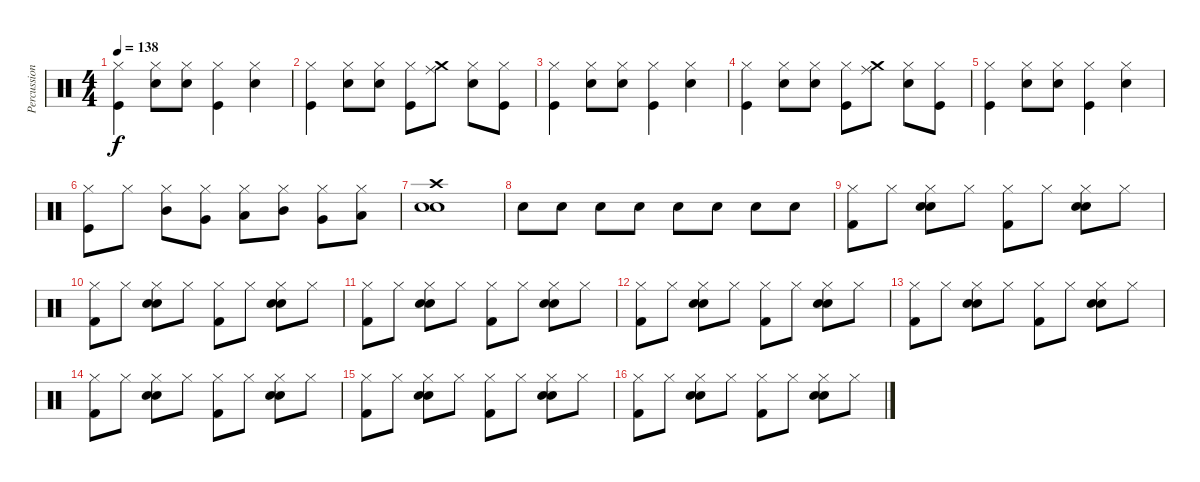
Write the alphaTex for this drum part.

\track ("Percussions" "Percussion") {instrument percussion}
\staff {score}
\articulation defaults
\ts (4 4)
\tempo 138
\clef neutral
\ks c
("Hi-Hat (closed)" "Kick (hit)").4{dy f} ("Hi-Hat (closed)" "Electric Snare (hit)").8 ("Hi-Hat (closed)" "Electric Snare (hit)").8 ("Hi-Hat (closed)" "Kick (hit)").4 ("Hi-Hat (closed)" "Electric Snare (hit)").4 |
("Hi-Hat (closed)" "Kick (hit)").4 ("Hi-Hat (closed)" "Electric Snare (hit)").8 ("Hi-Hat (closed)" "Electric Snare (hit)").8 ("Hi-Hat (closed)" "Kick (hit)").8 ("Crash medium (hit)" "Ride (middle)").8 ("Hi-Hat (closed)" "Electric Snare (hit)").8 ("Hi-Hat (closed)" "Kick (hit)").8 |
("Hi-Hat (closed)" "Kick (hit)").4 ("Hi-Hat (closed)" "Electric Snare (hit)").8 ("Hi-Hat (closed)" "Electric Snare (hit)").8 ("Hi-Hat (closed)" "Kick (hit)").4 ("Hi-Hat (closed)" "Electric Snare (hit)").4 |
("Hi-Hat (closed)" "Kick (hit)").4 ("Hi-Hat (closed)" "Electric Snare (hit)").8 ("Hi-Hat (closed)" "Electric Snare (hit)").8 ("Hi-Hat (closed)" "Kick (hit)").8 ("Crash medium (hit)" "Ride (middle)").8 ("Hi-Hat (closed)" "Electric Snare (hit)").8 ("Hi-Hat (closed)" "Kick (hit)").8 |
("Hi-Hat (closed)" "Kick (hit)").4 ("Hi-Hat (closed)" "Electric Snare (hit)").8 ("Hi-Hat (closed)" "Electric Snare (hit)").8 ("Hi-Hat (closed)" "Kick (hit)").4 ("Hi-Hat (closed)" "Electric Snare (hit)").4 |
("Hi-Hat (closed)" "Kick (hit)").8 "Hi-Hat (closed)".8 ("Hi-Hat (closed)" "Mid Tom (hit)").8 ("Hi-Hat (closed)" "Very Low Tom (hit)").8 ("Hi-Hat (closed)" "Low Floor Tom (hit)").8 ("Hi-Hat (closed)" "Mid Tom (hit)").8 ("Hi-Hat (closed)" "Very Low Tom (hit)").8 ("Hi-Hat (closed)" "Low Floor Tom (hit)").8 |
("Crash high (hit)" "Snare (hit) 2" "Electric Snare (hit)").1 |
"Electric Snare (hit)".8 "Electric Snare (hit)".8 "Electric Snare (hit)".8 "Electric Snare (hit)".8 "Electric Snare (hit)".8 "Electric Snare (hit)".8 "Electric Snare (hit)".8 "Electric Snare (hit)".8 |
("Hi-Hat (closed)" "Kick (hit) 2").8 "Hi-Hat (closed)".8 ("Hi-Hat (closed)" "Snare (hit) 2" "Electric Snare (hit)").8 "Hi-Hat (closed)".8 ("Hi-Hat (closed)" "Kick (hit) 2").8 "Hi-Hat (closed)".8 ("Hi-Hat (closed)" "Snare (hit) 2" "Electric Snare (hit)").8 "Hi-Hat (closed)".8 |
("Hi-Hat (closed)" "Kick (hit) 2").8 "Hi-Hat (closed)".8 ("Hi-Hat (closed)" "Snare (hit) 2" "Electric Snare (hit)").8 "Hi-Hat (closed)".8 ("Hi-Hat (closed)" "Kick (hit) 2").8 "Hi-Hat (closed)".8 ("Hi-Hat (closed)" "Snare (hit) 2" "Electric Snare (hit)").8 "Hi-Hat (closed)".8 |
("Hi-Hat (closed)" "Kick (hit) 2").8 "Hi-Hat (closed)".8 ("Hi-Hat (closed)" "Snare (hit) 2" "Electric Snare (hit)").8 "Hi-Hat (closed)".8 ("Hi-Hat (closed)" "Kick (hit) 2").8 "Hi-Hat (closed)".8 ("Hi-Hat (closed)" "Snare (hit) 2" "Electric Snare (hit)").8 "Hi-Hat (closed)".8 |
("Hi-Hat (closed)" "Kick (hit) 2").8 "Hi-Hat (closed)".8 ("Hi-Hat (closed)" "Snare (hit) 2" "Electric Snare (hit)").8 "Hi-Hat (closed)".8 ("Hi-Hat (closed)" "Kick (hit) 2").8 "Hi-Hat (closed)".8 ("Hi-Hat (closed)" "Snare (hit) 2" "Electric Snare (hit)").8 "Hi-Hat (closed)".8 |
("Hi-Hat (closed)" "Kick (hit) 2").8 "Hi-Hat (closed)".8 ("Hi-Hat (closed)" "Snare (hit) 2" "Electric Snare (hit)").8 "Hi-Hat (closed)".8 ("Hi-Hat (closed)" "Kick (hit) 2").8 "Hi-Hat (closed)".8 ("Hi-Hat (closed)" "Snare (hit) 2" "Electric Snare (hit)").8 "Hi-Hat (closed)".8 |
("Hi-Hat (closed)" "Kick (hit) 2").8 "Hi-Hat (closed)".8 ("Hi-Hat (closed)" "Snare (hit) 2" "Electric Snare (hit)").8 "Hi-Hat (closed)".8 ("Hi-Hat (closed)" "Kick (hit) 2").8 "Hi-Hat (closed)".8 ("Hi-Hat (closed)" "Snare (hit) 2" "Electric Snare (hit)").8 "Hi-Hat (closed)".8 |
("Hi-Hat (closed)" "Kick (hit) 2").8 "Hi-Hat (closed)".8 ("Hi-Hat (closed)" "Snare (hit) 2" "Electric Snare (hit)").8 "Hi-Hat (closed)".8 ("Hi-Hat (closed)" "Kick (hit) 2").8 "Hi-Hat (closed)".8 ("Hi-Hat (closed)" "Snare (hit) 2" "Electric Snare (hit)").8 "Hi-Hat (closed)".8 |
("Hi-Hat (closed)" "Kick (hit) 2").8 "Hi-Hat (closed)".8 ("Hi-Hat (closed)" "Snare (hit) 2" "Electric Snare (hit)").8 "Hi-Hat (closed)".8 ("Hi-Hat (closed)" "Kick (hit) 2").8 "Hi-Hat (closed)".8 ("Hi-Hat (closed)" "Snare (hit) 2" "Electric Snare (hit)").8 "Hi-Hat (closed)".8
